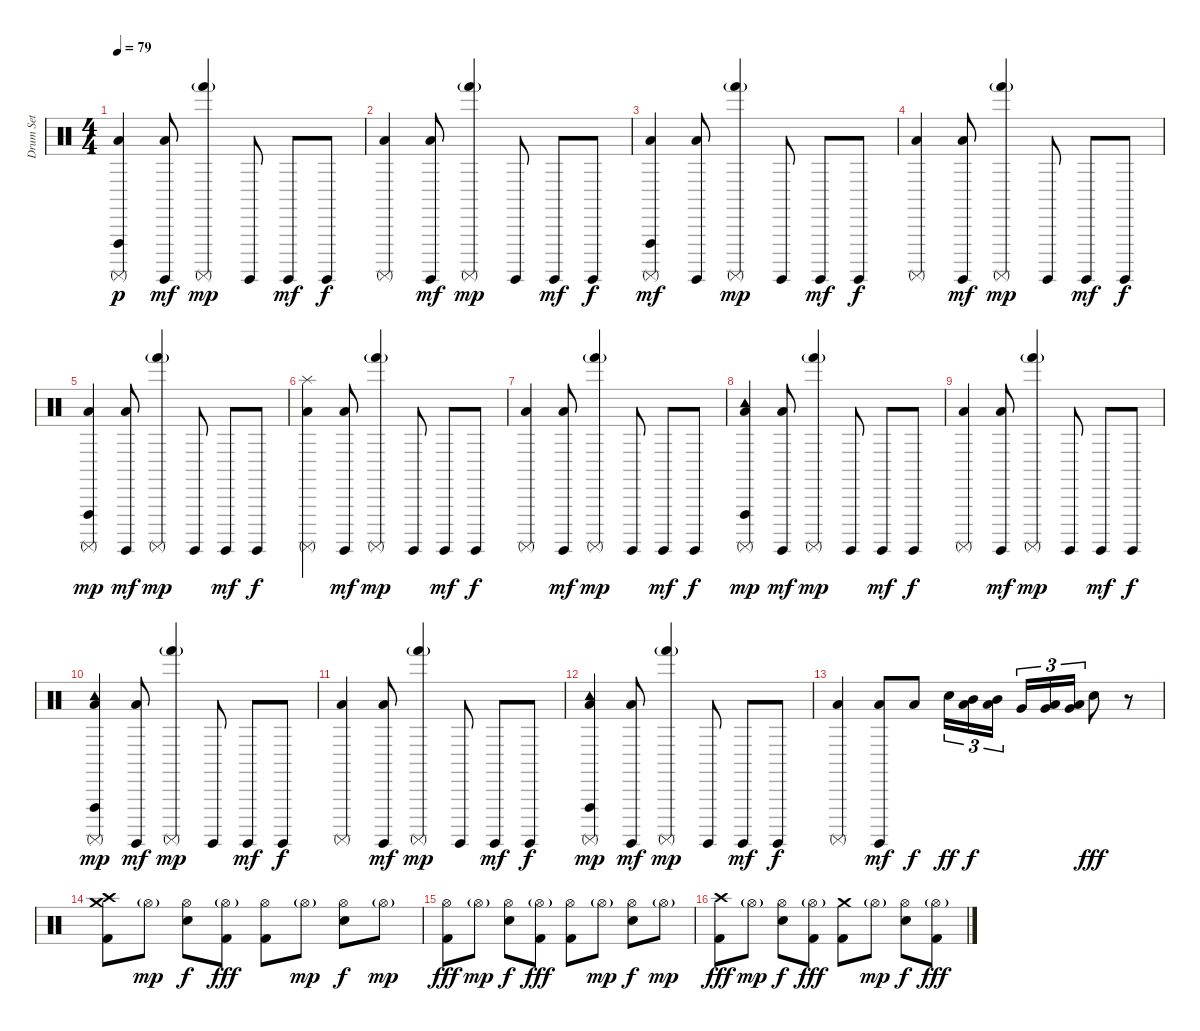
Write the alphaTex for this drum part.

\track ("Drum Set" "Drum Set") {instrument percussion}
\staff {score}
\articulation defaults
\ts (4 4)
\tempo 79
\clef neutral
\ks c
("Vibraslap (hit)" "Low Floor Tom (hit)" "Surdo (mute)").4{dy p} ("Low Floor Tom (hit)" "Surdo (hit)").8{dy mf} ("Surdo (mute)" "Hand (hit)"{g}).4{dy mp} "Surdo (hit)".8 "Surdo (hit)".8{dy mf} "Surdo (hit)".8{dy f} |
("Low Floor Tom (hit)" "Surdo (mute)").4 ("Low Floor Tom (hit)" "Surdo (hit)").8{dy mf} ("Surdo (mute)" "Hand (hit)"{g}).4{dy mp} "Surdo (hit)".8 "Surdo (hit)".8{dy mf} "Surdo (hit)".8{dy f} |
("Vibraslap (hit)" "Low Floor Tom (hit)" "Surdo (mute)").4{dy mf} ("Low Floor Tom (hit)" "Surdo (hit)").8 ("Surdo (mute)" "Hand (hit)"{g}).4{dy mp} "Surdo (hit)".8 "Surdo (hit)".8{dy mf} "Surdo (hit)".8{dy f} |
("Low Floor Tom (hit)" "Surdo (mute)").4 ("Low Floor Tom (hit)" "Surdo (hit)").8{dy mf} ("Surdo (mute)" "Hand (hit)"{g}).4{dy mp} "Surdo (hit)".8 "Surdo (hit)".8{dy mf} "Surdo (hit)".8{dy f} |
("Vibraslap (hit)" "Low Floor Tom (hit)" "Surdo (mute)").4{dy mp} ("Low Floor Tom (hit)" "Surdo (hit)").8{dy mf} ("Surdo (mute)" "Hand (hit)"{g}).4{dy mp} "Surdo (hit)".8 "Surdo (hit)".8{dy mf} "Surdo (hit)".8{dy f} |
("Splash (hit)" "Low Floor Tom (hit)" "Surdo (mute)").4 ("Low Floor Tom (hit)" "Surdo (hit)").8{dy mf} ("Surdo (mute)" "Hand (hit)"{g}).4{dy mp} "Surdo (hit)".8 "Surdo (hit)".8{dy mf} "Surdo (hit)".8{dy f} |
("Low Floor Tom (hit)" "Surdo (mute)").4 ("Low Floor Tom (hit)" "Surdo (hit)").8{dy mf} ("Surdo (mute)" "Hand (hit)"{g}).4{dy mp} "Surdo (hit)".8 "Surdo (hit)".8{dy mf} "Surdo (hit)".8{dy f} |
("Vibraslap (hit)" "Tambourine (hit)" "Low Floor Tom (hit)" "Surdo (mute)").4{dy mp} ("Low Floor Tom (hit)" "Surdo (hit)").8{dy mf} ("Surdo (mute)" "Hand (hit)"{g}).4{dy mp} "Surdo (hit)".8 "Surdo (hit)".8{dy mf} "Surdo (hit)".8{dy f} |
("Low Floor Tom (hit)" "Surdo (mute)").4 ("Low Floor Tom (hit)" "Surdo (hit)").8{dy mf} ("Surdo (mute)" "Hand (hit)"{g}).4{dy mp} "Surdo (hit)".8 "Surdo (hit)".8{dy mf} "Surdo (hit)".8{dy f} |
("Vibraslap (hit)" "Tambourine (hit)" "Low Floor Tom (hit)" "Surdo (mute)").4{dy mp} ("Low Floor Tom (hit)" "Surdo (hit)").8{dy mf} ("Surdo (mute)" "Hand (hit)"{g}).4{dy mp} "Surdo (hit)".8 "Surdo (hit)".8{dy mf} "Surdo (hit)".8{dy f} |
("Low Floor Tom (hit)" "Surdo (mute)").4 ("Low Floor Tom (hit)" "Surdo (hit)").8{dy mf} ("Surdo (mute)" "Hand (hit)"{g}).4{dy mp} "Surdo (hit)".8 "Surdo (hit)".8{dy mf} "Surdo (hit)".8{dy f} |
("Vibraslap (hit)" "Tambourine (hit)" "Low Floor Tom (hit)" "Surdo (mute)").4{dy mp} ("Low Floor Tom (hit)" "Surdo (hit)").8{dy mf} ("Surdo (mute)" "Hand (hit)"{g}).4{dy mp} "Surdo (hit)".8 "Surdo (hit)".8{dy mf} "Surdo (hit)".8{dy f} |
("Low Floor Tom (hit)" "Surdo (mute)").4 ("Low Floor Tom (hit)" "Surdo (hit)").8{dy mf} "Low Floor Tom (hit)".8{dy f} "Snare (hit) 2".16{tu (3 2) dy ff volume 14} ("Low Floor Tom (hit)" "Mid Tom (hit)").16{tu (3 2) dy f} ("Low Floor Tom (hit)" "Mid Tom (hit)").16{tu (3 2)} "Very Low Tom (hit)".16{tu (3 2)} ("Low Floor Tom (hit)" "Very Low Tom (hit)").16{tu (3 2)} ("Low Floor Tom (hit)" "Very Low Tom (hit)").16{tu (3 2)} "Snare (hit) 2".8{dy fff} r.8 |
("Crash high (hit)" "Crash medium (hit)" "Kick (hit) 2").8{volume 14} "Hi-Hat (open)"{g}.8{dy mp} ("Hi-Hat (open)" "Snare (hit) 2").8{dy f} ("Hi-Hat (open)"{g} "Kick (hit) 2").8{dy fff} ("Hi-Hat (open)" "Kick (hit) 2").8 "Hi-Hat (open)"{g}.8{dy mp} ("Hi-Hat (open)" "Snare (hit) 2").8{dy f} "Hi-Hat (open)"{g}.8{dy mp} |
("Hi-Hat (open)" "Kick (hit) 2").8{dy fff} "Hi-Hat (open)"{g}.8{dy mp} ("Hi-Hat (open)" "Snare (hit) 2").8{dy f} ("Hi-Hat (open)"{g} "Kick (hit) 2").8{dy fff} ("Hi-Hat (open)" "Kick (hit) 2").8 "Hi-Hat (open)"{g}.8{dy mp} ("Hi-Hat (open)" "Snare (hit) 2").8{dy f} "Hi-Hat (open)"{g}.8{dy mp} |
("Crash high (hit)" "Kick (hit) 2").8{dy fff} "Hi-Hat (open)"{g}.8{dy mp} ("Hi-Hat (open)" "Snare (hit) 2").8{dy f} ("Hi-Hat (open)"{g} "Kick (hit) 2").8{dy fff} ("Crash medium (hit)" "Kick (hit) 2").8 "Hi-Hat (open)"{g}.8{dy mp} ("Hi-Hat (open)" "Snare (hit) 2").8{dy f} ("Hi-Hat (open)"{g} "Kick (hit) 2").8{dy fff}
